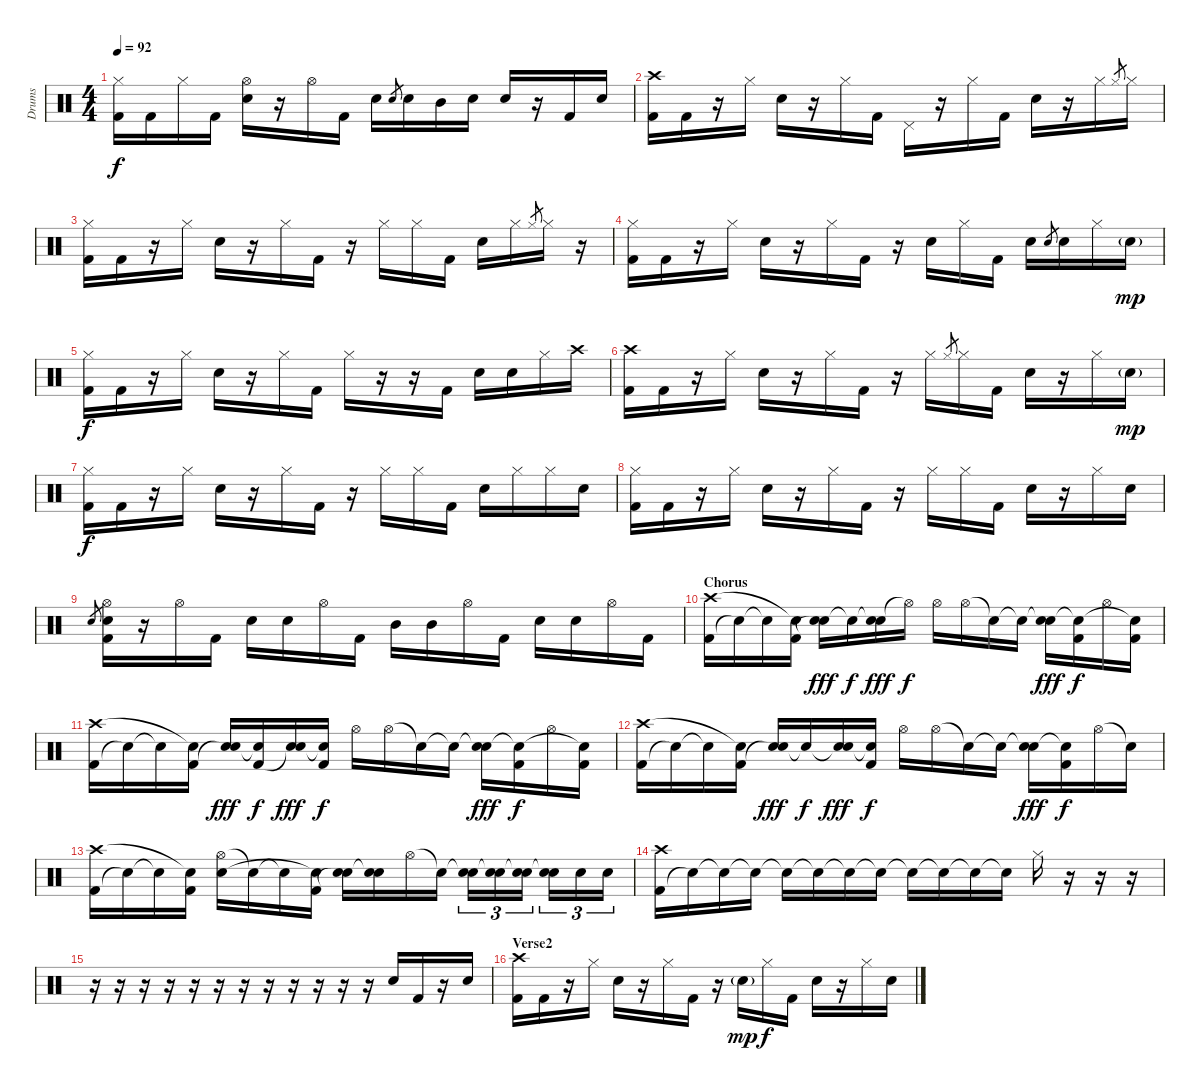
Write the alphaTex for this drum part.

\track ("Drums" "Drums") {instrument percussion}
\staff {score}
\articulation defaults
\ts (4 4)
\tempo 92
\clef neutral
\ks c
("Kick (hit) 2" "Hi-Hat (closed)").16{dy f} "Kick (hit) 2".16 "Hi-Hat (closed)".16 "Kick (hit) 2".16 ("Hi-Hat (open)" "Electric Snare (hit)").16 r.16 "Hi-Hat (open)".16 "Kick (hit) 2".16 "Electric Snare (hit)".16 "Electric Snare (hit)".8{gr} "Electric Snare (hit)".16 "Mid Tom (hit)".16 "Electric Snare (hit)".16 "Electric Snare (hit)".16 r.16 "Kick (hit) 2".16 "Electric Snare (hit)".16 |
("Kick (hit) 2" "Crash high (hit)").16 "Kick (hit) 2".16 r.16 "Hi-Hat (closed)".16 "Electric Snare (hit)".16 r.16 "Hi-Hat (closed)".16 "Kick (hit) 2".16 "Pedal Hi-Hat (hit)".16 r.16 "Hi-Hat (closed)".16 "Kick (hit) 2".16 "Electric Snare (hit)".16 r.16 "Hi-Hat (closed)".16 "Hi-Hat (closed)".8{gr} "Hi-Hat (closed)".16 |
("Kick (hit) 2" "Hi-Hat (closed)").16 "Kick (hit) 2".16 r.16 "Hi-Hat (closed)".16 "Electric Snare (hit)".16 r.16 "Hi-Hat (closed)".16 "Kick (hit) 2".16 r.16 "Hi-Hat (closed)".16 "Hi-Hat (closed)".16 "Kick (hit) 2".16 "Electric Snare (hit)".16 "Hi-Hat (closed)".16 "Hi-Hat (closed)".8{gr} "Hi-Hat (closed)".16 r.16 |
("Kick (hit) 2" "Hi-Hat (closed)").16 "Kick (hit) 2".16 r.16 "Hi-Hat (closed)".16 "Electric Snare (hit)".16 r.16 "Hi-Hat (closed)".16 "Kick (hit) 2".16 r.16 "Electric Snare (hit)".16 "Hi-Hat (closed)".16 "Kick (hit) 2".16 "Electric Snare (hit)".16 "Electric Snare (hit)".8{gr} "Electric Snare (hit)".16 "Hi-Hat (closed)".16 "Electric Snare (hit)"{g}.16{dy mp} |
("Kick (hit) 2" "Hi-Hat (closed)").16{dy f} "Kick (hit) 2".16 r.16 "Hi-Hat (closed)".16 "Electric Snare (hit)".16 r.16 "Hi-Hat (closed)".16 "Kick (hit) 2".16 "Hi-Hat (closed)".16 r.16 r.16 "Kick (hit) 2".16 "Electric Snare (hit)".16 "Electric Snare (hit)".16 "Hi-Hat (closed)".16 "Crash high (hit)".16 |
("Kick (hit) 2" "Crash high (hit)").16 "Kick (hit) 2".16 r.16 "Hi-Hat (closed)".16 "Electric Snare (hit)".16 r.16 "Hi-Hat (closed)".16 "Kick (hit) 2".16 r.16 "Hi-Hat (closed)".16 "Hi-Hat (closed)".8{gr} "Hi-Hat (closed)".16 "Kick (hit) 2".16 "Electric Snare (hit)".16 r.16 "Hi-Hat (closed)".16 "Electric Snare (hit)"{g}.16{dy mp} |
("Kick (hit) 2" "Hi-Hat (closed)").16{dy f} "Kick (hit) 2".16 r.16 "Hi-Hat (closed)".16 "Electric Snare (hit)".16 r.16 "Hi-Hat (closed)".16 "Kick (hit) 2".16 r.16 "Hi-Hat (closed)".16 "Hi-Hat (closed)".16 "Kick (hit) 2".16 "Electric Snare (hit)".16 "Hi-Hat (closed)".16 "Hi-Hat (closed)".16 "Electric Snare (hit)".16 |
("Kick (hit) 2" "Hi-Hat (closed)").16 "Kick (hit) 2".16 r.16 "Hi-Hat (closed)".16 "Electric Snare (hit)".16 r.16 "Hi-Hat (closed)".16 "Kick (hit) 2".16 r.16 "Hi-Hat (closed)".16 "Hi-Hat (closed)".16 "Kick (hit) 2".16 "Electric Snare (hit)".16 r.16 "Hi-Hat (closed)".16 "Electric Snare (hit)".16 |
"Electric Snare (hit)".8{gr} ("Kick (hit) 2" "Hi-Hat (open)" "Electric Snare (hit)").16 r.16 "Hi-Hat (open)".16 "Kick (hit) 2".16 "Electric Snare (hit)".16 "Electric Snare (hit)".16 "Hi-Hat (open)".16 "Kick (hit) 2".16 "Mid Tom (hit)".16 "Mid Tom (hit)".16 "Hi-Hat (open)".16 "Kick (hit) 2".16 "Electric Snare (hit)".16 "Electric Snare (hit)".16 "Hi-Hat (open)".16 "Kick (hit) 2".16 |
\section ("" "Chorus")
("Kick (hit) 2" "Crash high (hit)").16 "Snare (hit)"{t}.16 "Snare (hit)"{t}.16 ("Kick (hit) 2" "Snare (hit)"{t}).16 ("Snare (hit)"{t} "Electric Snare (hit)").16{dy fff} "Snare (hit)"{t}.16{dy f} ("Snare (hit)"{t} "Electric Snare (hit)").16{dy fff} "Hi-Hat (open)"{t}.16{dy f} "Hi-Hat (open)".16 "Hi-Hat (open)".16 "Snare (hit)"{t}.16 "Snare (hit)"{t}.16 ("Snare (hit)"{t} "Electric Snare (hit)").16{dy fff} ("Kick (hit) 2" "Snare (hit)"{t}).16{dy f} "Hi-Hat (open)".16 ("Kick (hit) 2" "Snare (hit)"{t}).16 |
("Kick (hit) 2" "Crash high (hit)").16 "Snare (hit)"{t}.16 "Snare (hit)"{t}.16 ("Kick (hit) 2" "Snare (hit)"{t}).16 ("Snare (hit)"{t} "Electric Snare (hit)").16{dy fff} ("Kick (hit) 2" "Snare (hit)"{t}).16{dy f} ("Snare (hit)"{t} "Electric Snare (hit)").16{dy fff} ("Kick (hit) 2" "Snare (hit)"{t}).16{dy f} "Hi-Hat (open)".16 "Hi-Hat (open)".16 "Snare (hit)"{t}.16 "Snare (hit)"{t}.16 ("Snare (hit)"{t} "Electric Snare (hit)").16{dy fff} ("Kick (hit) 2" "Snare (hit)"{t}).16{dy f} "Hi-Hat (open)".16 ("Kick (hit) 2" "Snare (hit)"{t}).16 |
("Kick (hit) 2" "Crash high (hit)").16 "Snare (hit)"{t}.16 "Snare (hit)"{t}.16 ("Kick (hit) 2" "Snare (hit)"{t}).16 ("Snare (hit)"{t} "Electric Snare (hit)").16{dy fff} "Snare (hit)"{t}.16{dy f} ("Snare (hit)"{t} "Electric Snare (hit)").16{dy fff} ("Kick (hit) 2" "Snare (hit)"{t}).16{dy f} "Hi-Hat (open)".16 "Hi-Hat (open)".16 "Snare (hit)"{t}.16 "Snare (hit)"{t}.16 ("Snare (hit)"{t} "Electric Snare (hit)").16{dy fff} ("Kick (hit) 2" "Snare (hit)"{t}).16{dy f} "Hi-Hat (open)".16 "Snare (hit)"{t}.16 |
("Kick (hit) 2" "Crash high (hit)").16 "Snare (hit)"{t}.16 "Snare (hit)"{t}.16 ("Kick (hit) 2" "Snare (hit)"{t}).16 ("Hi-Hat (open)" "Electric Snare (hit)").16 "Snare (hit)"{t}.16 "Snare (hit)"{t}.16 ("Kick (hit) 2" "Snare (hit)"{t}).16 ("Snare (hit)"{t} "Electric Snare (hit)").16 ("Snare (hit)"{t} "Electric Snare (hit)").16 "Hi-Hat (open)".16 "Snare (hit)"{t}.16 ("Snare (hit)"{t} "Electric Snare (hit)").16{tu (3 2)} ("Snare (hit)"{t} "Electric Snare (hit)").16{tu (3 2)} ("Snare (hit)"{t} "Electric Snare (hit)").16{tu (3 2)} ("Snare (hit)"{t} "Electric Snare (hit)").16{tu (3 2)} "Electric Snare (hit)".16{tu (3 2)} "Electric Snare (hit)".16{tu (3 2)} |
("Kick (hit) 2" "Crash high (hit)").16 "Snare (hit)"{t}.16 "Snare (hit)"{t}.16 "Snare (hit)"{t}.16 "Snare (hit)"{t}.16 "Snare (hit)"{t}.16 "Snare (hit)"{t}.16 "Snare (hit)"{t}.16 "Snare (hit)"{t}.16 "Snare (hit)"{t}.16 "Snare (hit)"{t}.16 "Snare (hit)"{t}.16 "Hi-Hat (closed)".16 r.16 r.16 r.16 |
r.16 r.16 r.16 r.16 r.16 r.16 r.16 r.16 r.16 r.16 r.16 r.16 "Electric Snare (hit)".16 "Kick (hit) 2".16 r.16 "Electric Snare (hit)".16 |
\section ("" "Verse2")
("Kick (hit) 2" "Crash high (hit)").16 "Kick (hit) 2".16 r.16 "Hi-Hat (closed)".16 "Electric Snare (hit)".16 r.16 "Hi-Hat (closed)".16 "Kick (hit) 2".16 r.16 "Electric Snare (hit)"{g}.16{dy mp} "Hi-Hat (closed)".16{dy f} "Kick (hit) 2".16 "Electric Snare (hit)".16 r.16 "Hi-Hat (closed)".16 "Electric Snare (hit)".16
